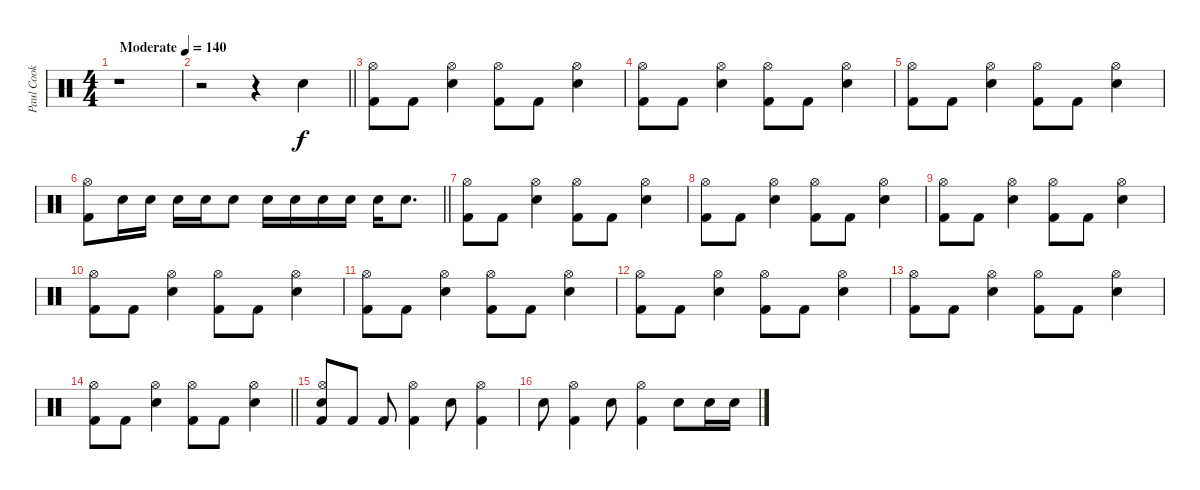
\track ("Paul Cook" "Paul Cook") {instrument percussion}
\staff {score}
\articulation defaults
\ts (4 4)
\tempo (140 "Moderate")
\clef neutral
\ks c
r.1{dy f} |
\barLineRight lightlight
r.2 r.4 "Electric Snare (hit)".4 |
("Hi-Hat (open)" "Kick (hit) 2").8 "Kick (hit) 2".8 ("Hi-Hat (open)" "Electric Snare (hit)").4 ("Hi-Hat (open)" "Kick (hit) 2").8 "Kick (hit) 2".8 ("Hi-Hat (open)" "Electric Snare (hit)").4 |
("Hi-Hat (open)" "Kick (hit) 2").8 "Kick (hit) 2".8 ("Hi-Hat (open)" "Electric Snare (hit)").4 ("Hi-Hat (open)" "Kick (hit) 2").8 "Kick (hit) 2".8 ("Hi-Hat (open)" "Electric Snare (hit)").4 |
("Hi-Hat (open)" "Kick (hit) 2").8 "Kick (hit) 2".8 ("Hi-Hat (open)" "Electric Snare (hit)").4 ("Hi-Hat (open)" "Kick (hit) 2").8 "Kick (hit) 2".8 ("Hi-Hat (open)" "Electric Snare (hit)").4 |
\barLineRight lightlight
("Hi-Hat (open)" "Kick (hit) 2").8 "Electric Snare (hit)".16 "Electric Snare (hit)".16 "Electric Snare (hit)".16 "Electric Snare (hit)".16 "Electric Snare (hit)".8 "Electric Snare (hit)".16 "Electric Snare (hit)".16 "Electric Snare (hit)".16 "Electric Snare (hit)".16 "Electric Snare (hit)".16 "Electric Snare (hit)".8{d} |
("Hi-Hat (open)" "Kick (hit) 2").8 "Kick (hit) 2".8 ("Hi-Hat (open)" "Electric Snare (hit)").4 ("Hi-Hat (open)" "Kick (hit) 2").8 "Kick (hit) 2".8 ("Hi-Hat (open)" "Electric Snare (hit)").4 |
("Hi-Hat (open)" "Kick (hit) 2").8 "Kick (hit) 2".8 ("Hi-Hat (open)" "Electric Snare (hit)").4 ("Hi-Hat (open)" "Kick (hit) 2").8 "Kick (hit) 2".8 ("Hi-Hat (open)" "Electric Snare (hit)").4 |
("Hi-Hat (open)" "Kick (hit) 2").8 "Kick (hit) 2".8 ("Hi-Hat (open)" "Electric Snare (hit)").4 ("Hi-Hat (open)" "Kick (hit) 2").8 "Kick (hit) 2".8 ("Hi-Hat (open)" "Electric Snare (hit)").4 |
("Hi-Hat (open)" "Kick (hit) 2").8 "Kick (hit) 2".8 ("Hi-Hat (open)" "Electric Snare (hit)").4 ("Hi-Hat (open)" "Kick (hit) 2").8 "Kick (hit) 2".8 ("Hi-Hat (open)" "Electric Snare (hit)").4 |
("Hi-Hat (open)" "Kick (hit) 2").8 "Kick (hit) 2".8 ("Hi-Hat (open)" "Electric Snare (hit)").4 ("Hi-Hat (open)" "Kick (hit) 2").8 "Kick (hit) 2".8 ("Hi-Hat (open)" "Electric Snare (hit)").4 |
("Hi-Hat (open)" "Kick (hit) 2").8 "Kick (hit) 2".8 ("Hi-Hat (open)" "Electric Snare (hit)").4 ("Hi-Hat (open)" "Kick (hit) 2").8 "Kick (hit) 2".8 ("Hi-Hat (open)" "Electric Snare (hit)").4 |
("Hi-Hat (open)" "Kick (hit) 2").8 "Kick (hit) 2".8 ("Hi-Hat (open)" "Electric Snare (hit)").4 ("Hi-Hat (open)" "Kick (hit) 2").8 "Kick (hit) 2".8 ("Hi-Hat (open)" "Electric Snare (hit)").4 |
\barLineRight lightlight
("Hi-Hat (open)" "Kick (hit) 2").8 "Kick (hit) 2".8 ("Hi-Hat (open)" "Electric Snare (hit)").4 ("Hi-Hat (open)" "Kick (hit) 2").8 "Kick (hit) 2".8 ("Hi-Hat (open)" "Electric Snare (hit)").4 |
("Hi-Hat (open)" "Electric Snare (hit)" "Kick (hit) 2").8 "Kick (hit) 2".8 "Kick (hit) 2".8 ("Hi-Hat (open)" "Kick (hit) 2").4 "Electric Snare (hit)".8 ("Hi-Hat (open)" "Kick (hit) 2").4 |
"Electric Snare (hit)".8 ("Hi-Hat (open)" "Kick (hit) 2").4 "Electric Snare (hit)".8 ("Hi-Hat (open)" "Kick (hit) 2").4 "Electric Snare (hit)".8 "Electric Snare (hit)".16 "Electric Snare (hit)".16
